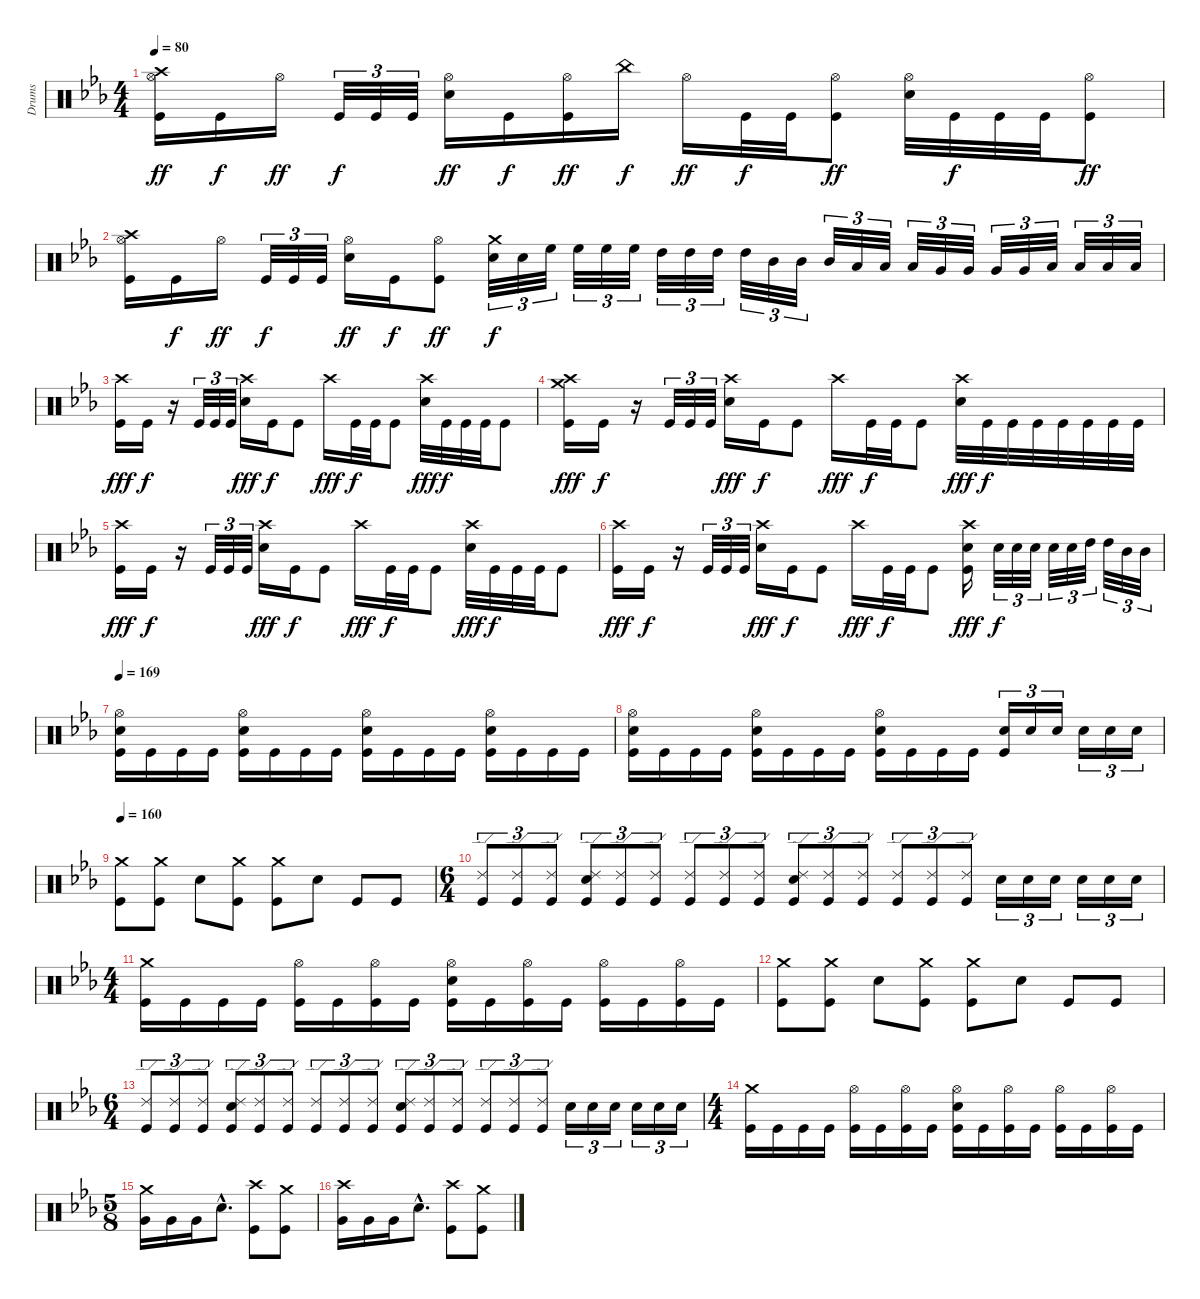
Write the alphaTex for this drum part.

\track ("Drums" "Drums") {instrument percussion}
\staff {score}
\articulation defaults
\ts (4 4)
\tempo 80
\clef neutral
\ks cminor
("Crash high (hit)" "Hi-Hat (open)" "Kick (hit)").16{dy ff} "Kick (hit)".16{dy f} "Hi-Hat (open)".16{dy ff} "Kick (hit)".32{tu (3 2) dy f} "Kick (hit)".32{tu (3 2)} "Kick (hit)".32{tu (3 2)} ("Hi-Hat (open)" "Electric Snare (hit)").16{dy ff} "Kick (hit)".16{dy f} ("Hi-Hat (open)" "Kick (hit)").16{dy ff} "China (hit)".16{dy f} "Hi-Hat (open)".16{dy ff} "Kick (hit)".32{dy f} "Kick (hit)".32 ("Hi-Hat (open)" "Kick (hit)").8{dy ff} ("Hi-Hat (open)" "Electric Snare (hit)").32 "Kick (hit)".32{dy f} "Kick (hit)".32 "Kick (hit)".32 ("Hi-Hat (open)" "Kick (hit)").8{dy ff} |
("Crash high (hit)" "Hi-Hat (open)" "Kick (hit)").16 "Kick (hit)".16{dy f} "Hi-Hat (open)".16{dy ff} "Kick (hit)".32{tu (3 2) dy f} "Kick (hit)".32{tu (3 2)} "Kick (hit)".32{tu (3 2)} ("Hi-Hat (open)" "Electric Snare (hit)").16{dy ff} "Kick (hit)".16{dy f} ("Hi-Hat (open)" "Kick (hit)").8{dy ff} ("Crash medium (hit)" "Electric Snare (hit)").32{tu (3 2) dy f} "Electric Snare (hit)".32{tu (3 2)} "High Floor Tom (hit)".32{tu (3 2)} "High Floor Tom (hit)".32{tu (3 2)} "High Floor Tom (hit)".32{tu (3 2)} "High Floor Tom (hit)".32{tu (3 2)} "High Tom (hit)".32{tu (3 2)} "High Tom (hit)".32{tu (3 2)} "High Tom (hit)".32{tu (3 2)} "High Tom (hit)".32{tu (3 2)} "Mid Tom (hit)".32{tu (3 2)} "Mid Tom (hit)".32{tu (3 2)} "Mid Tom (hit)".32{tu (3 2)} "Low Tom (hit)".32{tu (3 2)} "Low Tom (hit)".32{tu (3 2)} "Low Tom (hit)".32{tu (3 2)} "Very Low Tom (hit)".32{tu (3 2)} "Very Low Tom (hit)".32{tu (3 2)} "Very Low Tom (hit)".32{tu (3 2)} "Very Low Tom (hit)".32{tu (3 2)} "Low Floor Tom (hit)".32{tu (3 2)} "Low Floor Tom (hit)".32{tu (3 2)} "Low Floor Tom (hit)".32{tu (3 2)} "Low Floor Tom (hit)".32{tu (3 2)} |
("Crash high (hit)" "Kick (hit)").16{dy fff} "Kick (hit)".16{dy f} r.16 "Kick (hit)".32{tu (3 2)} "Kick (hit)".32{tu (3 2)} "Kick (hit)".32{tu (3 2)} ("Crash high (hit)" "Electric Snare (hit)").16{dy fff} "Kick (hit)".16{dy f} "Kick (hit)".8 "Crash high (hit)".16{dy fff} "Kick (hit)".32{dy f} "Kick (hit)".32 "Kick (hit)".8 ("Crash high (hit)" "Electric Snare (hit)").32{dy fff} "Kick (hit)".32{dy f} "Kick (hit)".32 "Kick (hit)".32 "Kick (hit)".8 |
("Crash high (hit)" "Crash medium (hit)" "Kick (hit)").16{dy fff} "Kick (hit)".16{dy f} r.16 "Kick (hit)".32{tu (3 2)} "Kick (hit)".32{tu (3 2)} "Kick (hit)".32{tu (3 2)} ("Crash high (hit)" "Electric Snare (hit)").16{dy fff} "Kick (hit)".16{dy f} "Kick (hit)".8 "Crash high (hit)".16{dy fff} "Kick (hit)".32{dy f} "Kick (hit)".32 "Kick (hit)".8 ("Crash high (hit)" "Electric Snare (hit)").32{dy fff} "Kick (hit)".32{dy f} "Kick (hit)".32 "Kick (hit)".32 "Kick (hit)".32 "Kick (hit)".32 "Kick (hit)".32 "Kick (hit)".32 |
("Crash high (hit)" "Kick (hit)").16{dy fff} "Kick (hit)".16{dy f} r.16 "Kick (hit)".32{tu (3 2)} "Kick (hit)".32{tu (3 2)} "Kick (hit)".32{tu (3 2)} ("Crash high (hit)" "Electric Snare (hit)").16{dy fff} "Kick (hit)".16{dy f} "Kick (hit)".8 "Crash high (hit)".16{dy fff} "Kick (hit)".32{dy f} "Kick (hit)".32 "Kick (hit)".8 ("Crash high (hit)" "Electric Snare (hit)").32{dy fff} "Kick (hit)".32{dy f} "Kick (hit)".32 "Kick (hit)".32 "Kick (hit)".8 |
("Crash high (hit)" "Kick (hit)").16{dy fff} "Kick (hit)".16{dy f} r.16 "Kick (hit)".32{tu (3 2)} "Kick (hit)".32{tu (3 2)} "Kick (hit)".32{tu (3 2)} ("Crash high (hit)" "Electric Snare (hit)").16{dy fff} "Kick (hit)".16{dy f} "Kick (hit)".8 "Crash high (hit)".16{dy fff} "Kick (hit)".32{dy f} "Kick (hit)".32 "Kick (hit)".8 ("Crash high (hit)" "Electric Snare (hit)" "Kick (hit)").16{dy fff} "Electric Snare (hit)".32{tu (3 2) dy f} "Electric Snare (hit)".32{tu (3 2)} "Electric Snare (hit)".32{tu (3 2)} "Electric Snare (hit)".32{tu (3 2)} "Electric Snare (hit)".32{tu (3 2)} "High Tom (hit)".32{tu (3 2)} "High Tom (hit)".32{tu (3 2)} "Mid Tom (hit)".32{tu (3 2)} "Mid Tom (hit)".32{tu (3 2)} |
\tempo 169
("Hi-Hat (open)" "Electric Snare (hit)" "Kick (hit)").16 "Kick (hit)".16 "Kick (hit)".16 "Kick (hit)".16 ("Hi-Hat (open)" "Electric Snare (hit)" "Kick (hit)").16 "Kick (hit)".16 "Kick (hit)".16 "Kick (hit)".16 ("Hi-Hat (open)" "Electric Snare (hit)" "Kick (hit)").16 "Kick (hit)".16 "Kick (hit)".16 "Kick (hit)".16 ("Hi-Hat (open)" "Electric Snare (hit)" "Kick (hit)").16 "Kick (hit)".16 "Kick (hit)".16 "Kick (hit)".16 |
("Hi-Hat (open)" "Electric Snare (hit)" "Kick (hit)").16 "Kick (hit)".16 "Kick (hit)".16 "Kick (hit)".16 ("Hi-Hat (open)" "Electric Snare (hit)" "Kick (hit)").16 "Kick (hit)".16 "Kick (hit)".16 "Kick (hit)".16 ("Hi-Hat (open)" "Electric Snare (hit)" "Kick (hit)").16 "Kick (hit)".16 "Kick (hit)".16 "Kick (hit)".16 ("Electric Snare (hit)" "Kick (hit)").16{tu (3 2)} "Electric Snare (hit)".16{tu (3 2)} "Electric Snare (hit)".16{tu (3 2)} "Electric Snare (hit)".16{tu (3 2)} "Electric Snare (hit)".16{tu (3 2)} "Electric Snare (hit)".16{tu (3 2)} |
\tempo 160
("Crash medium (hit)" "Kick (hit)").8 ("Crash medium (hit)" "Kick (hit)").8 "Electric Snare (hit)".8 ("Crash medium (hit)" "Kick (hit)").8 ("Crash medium (hit)" "Kick (hit)").8 "Electric Snare (hit)".8 "Kick (hit)".8 "Kick (hit)".8 |
\ts (6 4)
("Ride (edge) 2" "Kick (hit)").8{tu (3 2)} ("Ride (edge) 2" "Kick (hit)").8{tu (3 2)} ("Ride (edge) 2" "Kick (hit)").8{tu (3 2)} ("Ride (edge) 2" "Electric Snare (hit)" "Kick (hit)").8{tu (3 2)} ("Ride (edge) 2" "Kick (hit)").8{tu (3 2)} ("Ride (edge) 2" "Kick (hit)").8{tu (3 2)} ("Ride (edge) 2" "Kick (hit)").8{tu (3 2)} ("Ride (edge) 2" "Kick (hit)").8{tu (3 2)} ("Ride (edge) 2" "Kick (hit)").8{tu (3 2)} ("Ride (edge) 2" "Electric Snare (hit)" "Kick (hit)").8{tu (3 2)} ("Ride (edge) 2" "Kick (hit)").8{tu (3 2)} ("Ride (edge) 2" "Kick (hit)").8{tu (3 2)} ("Ride (edge) 2" "Kick (hit)").8{tu (3 2)} ("Ride (edge) 2" "Kick (hit)").8{tu (3 2)} ("Ride (edge) 2" "Kick (hit)").8{tu (3 2)} "Electric Snare (hit)".16{tu (3 2)} "Electric Snare (hit)".16{tu (3 2)} "Electric Snare (hit)".16{tu (3 2)} "Electric Snare (hit)".16{tu (3 2)} "Electric Snare (hit)".16{tu (3 2)} "Electric Snare (hit)".16{tu (3 2)} |
\ts (4 4)
("Crash medium (hit)" "Kick (hit)").16 "Kick (hit)".16 "Kick (hit)".16 "Kick (hit)".16 ("Hi-Hat (open)" "Kick (hit)").16 "Kick (hit)".16 ("Hi-Hat (open)" "Kick (hit)").16 "Kick (hit)".16 ("Hi-Hat (open)" "Electric Snare (hit)" "Kick (hit)").16 "Kick (hit)".16 ("Hi-Hat (open)" "Kick (hit)").16 "Kick (hit)".16 ("Hi-Hat (open)" "Kick (hit)").16 "Kick (hit)".16 ("Hi-Hat (open)" "Kick (hit)").16 "Kick (hit)".16 |
("Crash medium (hit)" "Kick (hit)").8 ("Crash medium (hit)" "Kick (hit)").8 "Electric Snare (hit)".8 ("Crash medium (hit)" "Kick (hit)").8 ("Crash medium (hit)" "Kick (hit)").8 "Electric Snare (hit)".8 "Kick (hit)".8 "Kick (hit)".8 |
\ts (6 4)
("Ride (edge) 2" "Kick (hit)").8{tu (3 2)} ("Ride (edge) 2" "Kick (hit)").8{tu (3 2)} ("Ride (edge) 2" "Kick (hit)").8{tu (3 2)} ("Ride (edge) 2" "Electric Snare (hit)" "Kick (hit)").8{tu (3 2)} ("Ride (edge) 2" "Kick (hit)").8{tu (3 2)} ("Ride (edge) 2" "Kick (hit)").8{tu (3 2)} ("Ride (edge) 2" "Kick (hit)").8{tu (3 2)} ("Ride (edge) 2" "Kick (hit)").8{tu (3 2)} ("Ride (edge) 2" "Kick (hit)").8{tu (3 2)} ("Ride (edge) 2" "Electric Snare (hit)" "Kick (hit)").8{tu (3 2)} ("Ride (edge) 2" "Kick (hit)").8{tu (3 2)} ("Ride (edge) 2" "Kick (hit)").8{tu (3 2)} ("Ride (edge) 2" "Kick (hit)").8{tu (3 2)} ("Ride (edge) 2" "Kick (hit)").8{tu (3 2)} ("Ride (edge) 2" "Kick (hit)").8{tu (3 2)} "Electric Snare (hit)".16{tu (3 2)} "Electric Snare (hit)".16{tu (3 2)} "Electric Snare (hit)".16{tu (3 2)} "Electric Snare (hit)".16{tu (3 2)} "Electric Snare (hit)".16{tu (3 2)} "Electric Snare (hit)".16{tu (3 2)} |
\ts (4 4)
("Crash medium (hit)" "Kick (hit)").16 "Kick (hit)".16 "Kick (hit)".16 "Kick (hit)".16 ("Hi-Hat (open)" "Kick (hit)").16 "Kick (hit)".16 ("Hi-Hat (open)" "Kick (hit)").16 "Kick (hit)".16 ("Hi-Hat (open)" "Electric Snare (hit)" "Kick (hit)").16 "Kick (hit)".16 ("Hi-Hat (open)" "Kick (hit)").16 "Kick (hit)".16 ("Hi-Hat (open)" "Kick (hit)").16 "Kick (hit)".16 ("Hi-Hat (open)" "Kick (hit)").16 "Kick (hit)".16 |
\ts (5 8)
("Crash medium (hit)" "Very Low Tom (hit)").16 "Very Low Tom (hit)".16 "Very Low Tom (hit)".16 "Electric Snare (hit)"{hac}.8{d} ("Crash high (hit)" "Kick (hit)").8 ("Crash medium (hit)" "Kick (hit)").8 |
("Crash high (hit)" "Very Low Tom (hit)").16 "Very Low Tom (hit)".16 "Very Low Tom (hit)".16 "Electric Snare (hit)"{hac}.8{d} ("Crash high (hit)" "Kick (hit)").8 ("Crash medium (hit)" "Kick (hit)").8
